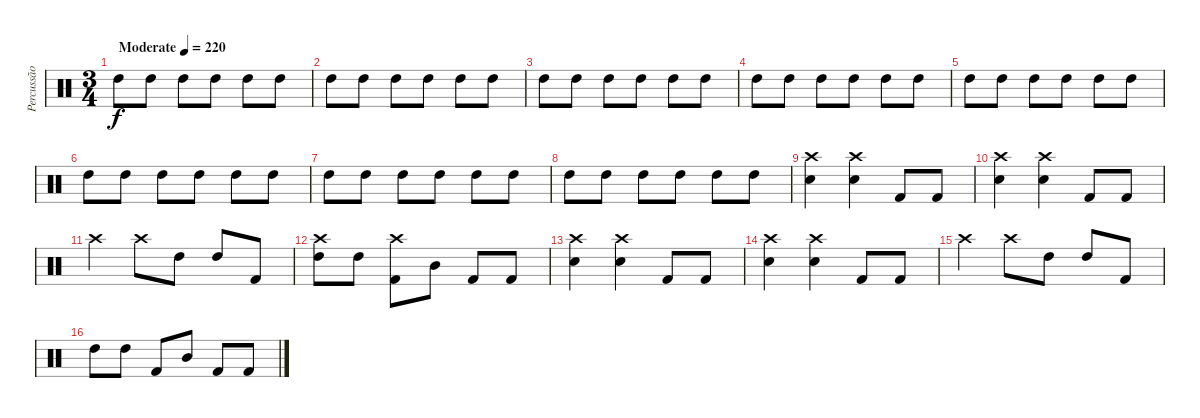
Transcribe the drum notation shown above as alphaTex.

\track ("Percussão" "Percussão") {instrument percussion}
\staff {score}
\articulation defaults
\ts (3 4)
\tempo (220 "Moderate")
\clef neutral
\ks c "High Tom (hit)".8{dy f volume 16} "High Tom (hit)".8 "High Tom (hit)".8 "High Tom (hit)".8 "High Tom (hit)".8 "High Tom (hit)".8
|
"High Tom (hit)".8 "High Tom (hit)".8 "High Tom (hit)".8 "High Tom (hit)".8 "High Tom (hit)".8 "High Tom (hit)".8 |
"High Tom (hit)".8 "High Tom (hit)".8 "High Tom (hit)".8 "High Tom (hit)".8 "High Tom (hit)".8 "High Tom (hit)".8 |
"High Tom (hit)".8 "High Tom (hit)".8 "High Tom (hit)".8 "High Tom (hit)".8 "High Tom (hit)".8 "High Tom (hit)".8 |
"High Tom (hit)".8 "High Tom (hit)".8 "High Tom (hit)".8 "High Tom (hit)".8 "High Tom (hit)".8 "High Tom (hit)".8 |
"High Tom (hit)".8 "High Tom (hit)".8 "High Tom (hit)".8 "High Tom (hit)".8 "High Tom (hit)".8 "High Tom (hit)".8 |
"High Tom (hit)".8 "High Tom (hit)".8 "High Tom (hit)".8 "High Tom (hit)".8 "High Tom (hit)".8 "High Tom (hit)".8 |
"High Tom (hit)".8 "High Tom (hit)".8 "High Tom (hit)".8 "High Tom (hit)".8 "High Tom (hit)".8 "High Tom (hit)".8 |
("Crash high (hit)" "Snare (hit) 2").4 ("Crash high (hit)" "Snare (hit) 2").4 "Kick (hit) 2".8 "Kick (hit) 2".8 |
("Crash high (hit)" "Snare (hit) 2").4 ("Crash high (hit)" "Snare (hit) 2").4 "Kick (hit) 2".8 "Kick (hit) 2".8 |
"Crash high (hit)".4 "Crash high (hit)".8 "High Tom (hit)".8 "High Tom (hit)".8 "Kick (hit) 2".8 |
("Crash high (hit)" "High Tom (hit)").8 "High Tom (hit)".8 ("Crash high (hit)" "Kick (hit) 2").8 "Mid Tom (hit)".8 "Kick (hit) 2".8 "Kick (hit) 2".8 |
("Crash high (hit)" "Snare (hit) 2").4 ("Crash high (hit)" "Snare (hit) 2").4 "Kick (hit) 2".8 "Kick (hit) 2".8 |
("Crash high (hit)" "Snare (hit) 2").4 ("Crash high (hit)" "Snare (hit) 2").4 "Kick (hit) 2".8 "Kick (hit) 2".8 |
"Crash high (hit)".4 "Crash high (hit)".8 "High Tom (hit)".8 "High Tom (hit)".8 "Kick (hit) 2".8 |
"High Tom (hit)".8 "High Tom (hit)".8 "Kick (hit) 2".8 "Mid Tom (hit)".8 "Kick (hit) 2".8 "Kick (hit) 2".8
